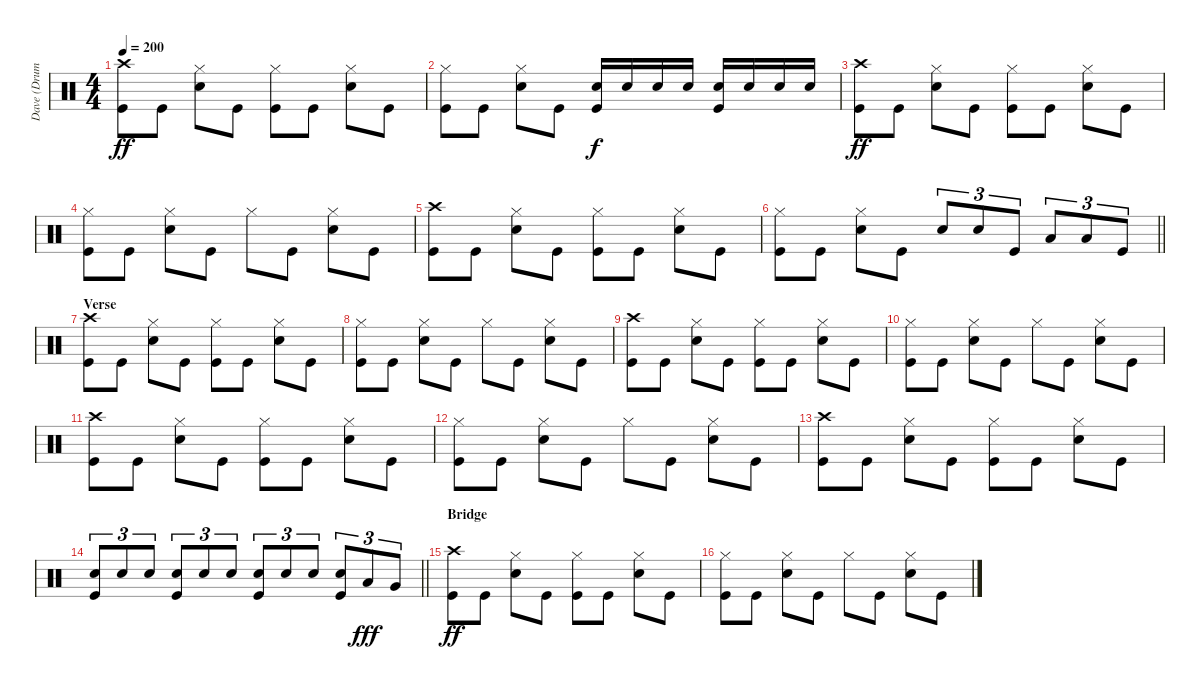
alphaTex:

\track ("Dave (Drums)" "Dave (Drum") {instrument percussion}
\staff {score}
\articulation defaults
\ts (4 4)
\tempo 200
\clef neutral
\ks c
("Crash high (hit)" "Kick (hit)").8{dy ff} "Kick (hit)".8 ("Hi-Hat (closed)" "Snare (hit) 2").8 "Kick (hit)".8 ("Hi-Hat (closed)" "Kick (hit)").8 "Kick (hit)".8 ("Hi-Hat (closed)" "Snare (hit) 2").8 "Kick (hit)".8 |
("Hi-Hat (closed)" "Kick (hit)").8 "Kick (hit)".8 ("Hi-Hat (closed)" "Snare (hit) 2").8 "Kick (hit)".8 ("Snare (hit) 2" "Kick (hit)").16{dy f} "Snare (hit) 2".16 "Snare (hit) 2".16 "Snare (hit) 2".16 ("Snare (hit) 2" "Kick (hit)").16 "Snare (hit) 2".16 "Snare (hit) 2".16 "Snare (hit) 2".16 |
("Crash high (hit)" "Kick (hit)").8{dy ff} "Kick (hit)".8 ("Hi-Hat (closed)" "Snare (hit) 2").8 "Kick (hit)".8 ("Hi-Hat (closed)" "Kick (hit)").8 "Kick (hit)".8 ("Hi-Hat (closed)" "Snare (hit) 2").8 "Kick (hit)".8 |
("Hi-Hat (closed)" "Kick (hit)").8 "Kick (hit)".8 ("Hi-Hat (closed)" "Snare (hit) 2").8 "Kick (hit)".8 "Hi-Hat (closed)".8 "Kick (hit)".8 ("Hi-Hat (closed)" "Snare (hit) 2").8 "Kick (hit)".8 |
("Crash high (hit)" "Kick (hit)").8 "Kick (hit)".8 ("Hi-Hat (closed)" "Snare (hit) 2").8 "Kick (hit)".8 ("Hi-Hat (closed)" "Kick (hit)").8 "Kick (hit)".8 ("Hi-Hat (closed)" "Snare (hit) 2").8 "Kick (hit)".8 |
\barLineRight lightlight
("Hi-Hat (closed)" "Kick (hit)").8 "Kick (hit)".8 ("Hi-Hat (closed)" "Snare (hit) 2").8 "Kick (hit)".8 "Snare (hit) 2".8{tu (3 2)} "Snare (hit) 2".8{tu (3 2)} "Kick (hit)".8{tu (3 2)} "Low Tom (hit)".8{tu (3 2)} "Low Tom (hit)".8{tu (3 2)} "Kick (hit)".8{tu (3 2)} |
\section ("" "Verse")
("Crash high (hit)" "Kick (hit)").8 "Kick (hit)".8 ("Hi-Hat (closed)" "Snare (hit) 2").8 "Kick (hit)".8 ("Hi-Hat (closed)" "Kick (hit)").8 "Kick (hit)".8 ("Hi-Hat (closed)" "Snare (hit) 2").8 "Kick (hit)".8 |
("Hi-Hat (closed)" "Kick (hit)").8 "Kick (hit)".8 ("Hi-Hat (closed)" "Snare (hit) 2").8 "Kick (hit)".8 "Hi-Hat (closed)".8 "Kick (hit)".8 ("Hi-Hat (closed)" "Snare (hit) 2").8 "Kick (hit)".8 |
("Crash high (hit)" "Kick (hit)").8 "Kick (hit)".8 ("Hi-Hat (closed)" "Snare (hit) 2").8 "Kick (hit)".8 ("Hi-Hat (closed)" "Kick (hit)").8 "Kick (hit)".8 ("Hi-Hat (closed)" "Snare (hit) 2").8 "Kick (hit)".8 |
("Hi-Hat (closed)" "Kick (hit)").8 "Kick (hit)".8 ("Hi-Hat (closed)" "Snare (hit) 2").8 "Kick (hit)".8 "Hi-Hat (closed)".8 "Kick (hit)".8 ("Hi-Hat (closed)" "Snare (hit) 2").8 "Kick (hit)".8 |
("Crash high (hit)" "Kick (hit)").8 "Kick (hit)".8 ("Hi-Hat (closed)" "Snare (hit) 2").8 "Kick (hit)".8 ("Hi-Hat (closed)" "Kick (hit)").8 "Kick (hit)".8 ("Hi-Hat (closed)" "Snare (hit) 2").8 "Kick (hit)".8 |
("Hi-Hat (closed)" "Kick (hit)").8 "Kick (hit)".8 ("Hi-Hat (closed)" "Snare (hit) 2").8 "Kick (hit)".8 "Hi-Hat (closed)".8 "Kick (hit)".8 ("Hi-Hat (closed)" "Snare (hit) 2").8 "Kick (hit)".8 |
("Crash high (hit)" "Kick (hit)").8 "Kick (hit)".8 ("Hi-Hat (closed)" "Snare (hit) 2").8 "Kick (hit)".8 ("Hi-Hat (closed)" "Kick (hit)").8 "Kick (hit)".8 ("Hi-Hat (closed)" "Snare (hit) 2").8 "Kick (hit)".8 |
\barLineRight lightlight
("Snare (hit) 2" "Kick (hit)").8{tu (3 2)} "Snare (hit) 2".8{tu (3 2)} "Snare (hit) 2".8{tu (3 2)} ("Snare (hit) 2" "Kick (hit)").8{tu (3 2)} "Snare (hit) 2".8{tu (3 2)} "Snare (hit) 2".8{tu (3 2)} ("Snare (hit) 2" "Kick (hit)").8{tu (3 2)} "Snare (hit) 2".8{tu (3 2)} "Snare (hit) 2".8{tu (3 2)} ("Snare (hit) 2" "Kick (hit)").8{tu (3 2)} "Low Tom (hit)".8{tu (3 2) dy fff} "Very Low Tom (hit)".8{tu (3 2)} |
\section ("" "Bridge")
("Crash high (hit)" "Kick (hit)").8{dy ff} "Kick (hit)".8 ("Hi-Hat (closed)" "Snare (hit) 2").8 "Kick (hit)".8 ("Hi-Hat (closed)" "Kick (hit)").8 "Kick (hit)".8 ("Hi-Hat (closed)" "Snare (hit) 2").8 "Kick (hit)".8 |
("Hi-Hat (closed)" "Kick (hit)").8 "Kick (hit)".8 ("Hi-Hat (closed)" "Snare (hit) 2").8 "Kick (hit)".8 "Hi-Hat (closed)".8 "Kick (hit)".8 ("Hi-Hat (closed)" "Snare (hit) 2").8 "Kick (hit)".8
